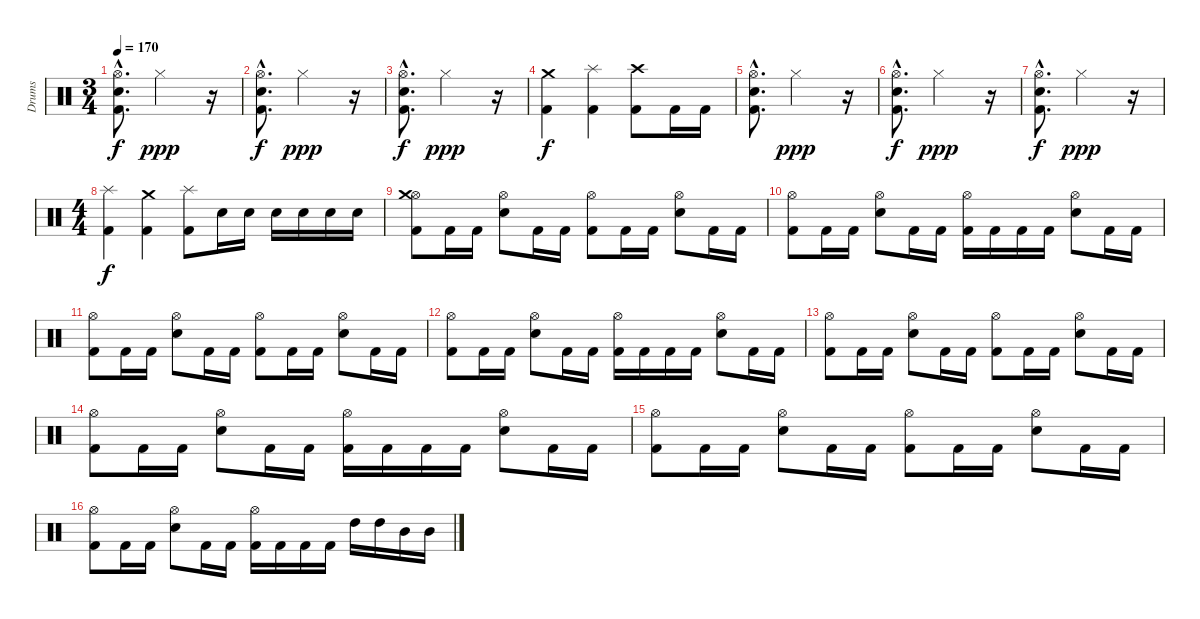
\track ("Drums" "Drums") {instrument percussion}
\staff {score}
\articulation defaults
\ts (3 4)
\tempo 170
\clef neutral
\ks c
("Kick (hit) 2"{hac} "Snare (hit) 2"{hac} "Hi-Hat (open)"{hac}).8{d dy f} "Hi-Hat (closed)".2{dy ppp} r.16 |
("Kick (hit) 2"{hac} "Snare (hit) 2"{hac} "Hi-Hat (open)"{hac}).8{d dy f} "Hi-Hat (closed)".2{dy ppp} r.16 |
("Kick (hit) 2"{hac} "Snare (hit) 2"{hac} "Hi-Hat (open)"{hac}).8{d dy f} "Hi-Hat (closed)".2{dy ppp} r.16 |
("Kick (hit) 2" "Crash medium (hit)").4{dy f} ("Kick (hit) 2" "Splash (hit)").4 ("Kick (hit) 2" "Crash high (hit)").8 "Kick (hit) 2".16 "Kick (hit) 2".16 |
("Kick (hit) 2"{hac} "Snare (hit) 2"{hac} "Hi-Hat (open)"{hac}).8{d} "Hi-Hat (closed)".2{dy ppp} r.16 |
("Kick (hit) 2"{hac} "Snare (hit) 2"{hac} "Hi-Hat (open)"{hac}).8{d dy f} "Hi-Hat (closed)".2{dy ppp} r.16 |
("Kick (hit) 2"{hac} "Snare (hit) 2"{hac} "Hi-Hat (open)"{hac}).8{d dy f} "Hi-Hat (closed)".2{dy ppp} r.16 |
\ts (4 4)
("Kick (hit) 2" "Splash (hit)").4{dy f} ("Kick (hit) 2" "Crash medium (hit)").4 ("Kick (hit) 2" "Splash (hit)").8 "Snare (hit) 2".16 "Snare (hit) 2".16 "Snare (hit) 2".16 "Snare (hit) 2".16 "Snare (hit) 2".16 "Snare (hit) 2".16 |
\section ("" "")
("Kick (hit) 2" "Hi-Hat (open)" "Crash medium (hit)").8 "Kick (hit) 2".16 "Kick (hit) 2".16 ("Snare (hit) 2" "Hi-Hat (open)").8 "Kick (hit) 2".16 "Kick (hit) 2".16 ("Kick (hit) 2" "Hi-Hat (open)").8 "Kick (hit) 2".16 "Kick (hit) 2".16 ("Snare (hit) 2" "Hi-Hat (open)").8 "Kick (hit) 2".16 "Kick (hit) 2".16 |
("Kick (hit) 2" "Hi-Hat (open)").8 "Kick (hit) 2".16 "Kick (hit) 2".16 ("Snare (hit) 2" "Hi-Hat (open)").8 "Kick (hit) 2".16 "Kick (hit) 2".16 ("Kick (hit) 2" "Hi-Hat (open)").16 "Kick (hit) 2".16 "Kick (hit) 2".16 "Kick (hit) 2".16 ("Snare (hit) 2" "Hi-Hat (open)").8 "Kick (hit) 2".16 "Kick (hit) 2".16 |
("Kick (hit) 2" "Hi-Hat (open)").8 "Kick (hit) 2".16 "Kick (hit) 2".16 ("Snare (hit) 2" "Hi-Hat (open)").8 "Kick (hit) 2".16 "Kick (hit) 2".16 ("Kick (hit) 2" "Hi-Hat (open)").8 "Kick (hit) 2".16 "Kick (hit) 2".16 ("Snare (hit) 2" "Hi-Hat (open)").8 "Kick (hit) 2".16 "Kick (hit) 2".16 |
("Kick (hit) 2" "Hi-Hat (open)").8 "Kick (hit) 2".16 "Kick (hit) 2".16 ("Snare (hit) 2" "Hi-Hat (open)").8 "Kick (hit) 2".16 "Kick (hit) 2".16 ("Kick (hit) 2" "Hi-Hat (open)").16 "Kick (hit) 2".16 "Kick (hit) 2".16 "Kick (hit) 2".16 ("Snare (hit) 2" "Hi-Hat (open)").8 "Kick (hit) 2".16 "Kick (hit) 2".16 |
("Kick (hit) 2" "Hi-Hat (open)").8 "Kick (hit) 2".16 "Kick (hit) 2".16 ("Snare (hit) 2" "Hi-Hat (open)").8 "Kick (hit) 2".16 "Kick (hit) 2".16 ("Kick (hit) 2" "Hi-Hat (open)").8 "Kick (hit) 2".16 "Kick (hit) 2".16 ("Snare (hit) 2" "Hi-Hat (open)").8 "Kick (hit) 2".16 "Kick (hit) 2".16 |
("Kick (hit) 2" "Hi-Hat (open)").8 "Kick (hit) 2".16 "Kick (hit) 2".16 ("Snare (hit) 2" "Hi-Hat (open)").8 "Kick (hit) 2".16 "Kick (hit) 2".16 ("Kick (hit) 2" "Hi-Hat (open)").16 "Kick (hit) 2".16 "Kick (hit) 2".16 "Kick (hit) 2".16 ("Snare (hit) 2" "Hi-Hat (open)").8 "Kick (hit) 2".16 "Kick (hit) 2".16 |
("Kick (hit) 2" "Hi-Hat (open)").8 "Kick (hit) 2".16 "Kick (hit) 2".16 ("Snare (hit) 2" "Hi-Hat (open)").8 "Kick (hit) 2".16 "Kick (hit) 2".16 ("Kick (hit) 2" "Hi-Hat (open)").8 "Kick (hit) 2".16 "Kick (hit) 2".16 ("Snare (hit) 2" "Hi-Hat (open)").8 "Kick (hit) 2".16 "Kick (hit) 2".16 |
("Kick (hit) 2" "Hi-Hat (open)").8 "Kick (hit) 2".16 "Kick (hit) 2".16 ("Snare (hit) 2" "Hi-Hat (open)").8 "Kick (hit) 2".16 "Kick (hit) 2".16 ("Kick (hit) 2" "Hi-Hat (open)").16 "Kick (hit) 2".16 "Kick (hit) 2".16 "Kick (hit) 2".16 "High Tom (hit)".16 "High Tom (hit)".16 "Mid Tom (hit)".16 "Mid Tom (hit)".16
